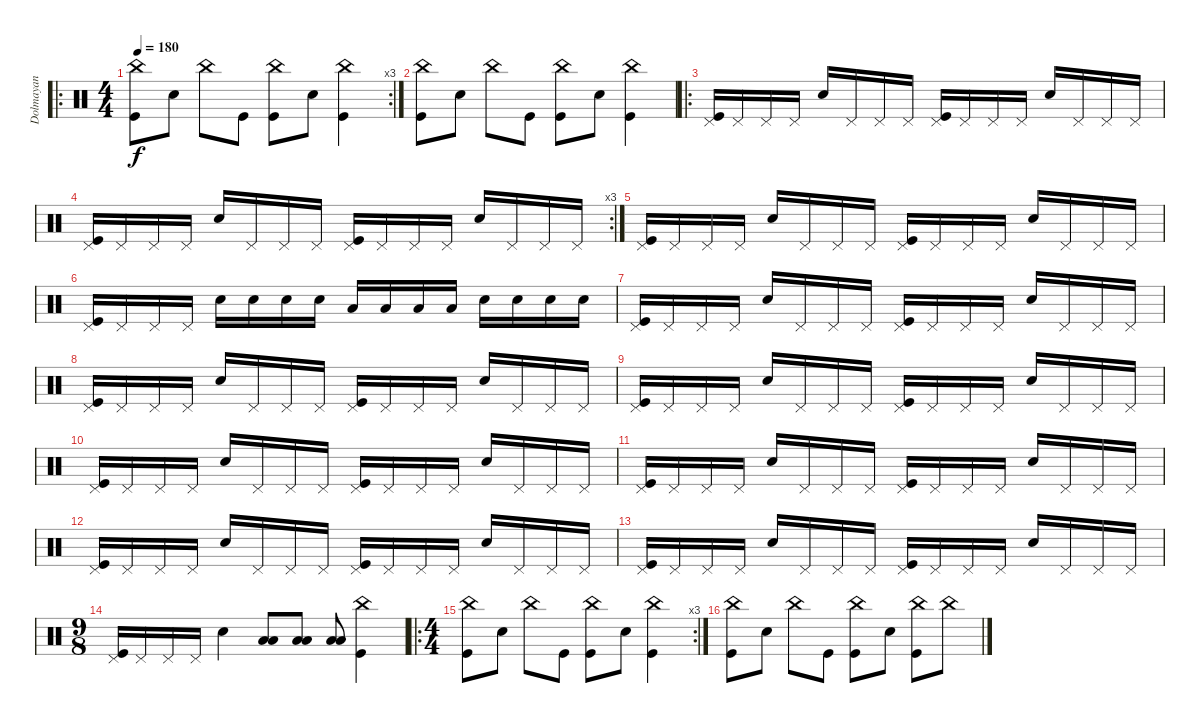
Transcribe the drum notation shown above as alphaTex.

\track ("Dolmayan" "Dolmayan") {instrument percussion}
\staff {score}
\articulation defaults
\ro
\rc 3
\ts (4 4)
\tempo 180
\clef neutral
\ks c
("China (hit)" "Kick (hit)").8{dy f} "Snare (hit) 2".8 "China (hit)".8 "Kick (hit)".8 ("China (hit)" "Kick (hit)").8 "Snare (hit) 2".8 ("China (hit)" "Kick (hit)").4 |
("China (hit)" "Kick (hit)").8 "Snare (hit) 2".8 "China (hit)".8 "Kick (hit)".8 ("China (hit)" "Kick (hit)").8 "Snare (hit) 2".8 ("China (hit)" "Kick (hit)").4 |
\ro
("Pedal Hi-Hat (hit)" "Kick (hit)").16 "Pedal Hi-Hat (hit)".16 "Pedal Hi-Hat (hit)".16 "Pedal Hi-Hat (hit)".16 "Snare (hit) 2".16 "Pedal Hi-Hat (hit)".16 "Pedal Hi-Hat (hit)".16 "Pedal Hi-Hat (hit)".16 ("Pedal Hi-Hat (hit)" "Kick (hit)").16 "Pedal Hi-Hat (hit)".16 "Pedal Hi-Hat (hit)".16 "Pedal Hi-Hat (hit)".16 "Snare (hit) 2".16 "Pedal Hi-Hat (hit)".16 "Pedal Hi-Hat (hit)".16 "Pedal Hi-Hat (hit)".16 |
\rc 3
("Pedal Hi-Hat (hit)" "Kick (hit)").16 "Pedal Hi-Hat (hit)".16 "Pedal Hi-Hat (hit)".16 "Pedal Hi-Hat (hit)".16 "Snare (hit) 2".16 "Pedal Hi-Hat (hit)".16 "Pedal Hi-Hat (hit)".16 "Pedal Hi-Hat (hit)".16 ("Pedal Hi-Hat (hit)" "Kick (hit)").16 "Pedal Hi-Hat (hit)".16 "Pedal Hi-Hat (hit)".16 "Pedal Hi-Hat (hit)".16 "Snare (hit) 2".16 "Pedal Hi-Hat (hit)".16 "Pedal Hi-Hat (hit)".16 "Pedal Hi-Hat (hit)".16 |
("Pedal Hi-Hat (hit)" "Kick (hit)").16 "Pedal Hi-Hat (hit)".16 "Pedal Hi-Hat (hit)".16 "Pedal Hi-Hat (hit)".16 "Snare (hit) 2".16 "Pedal Hi-Hat (hit)".16 "Pedal Hi-Hat (hit)".16 "Pedal Hi-Hat (hit)".16 ("Pedal Hi-Hat (hit)" "Kick (hit)").16 "Pedal Hi-Hat (hit)".16 "Pedal Hi-Hat (hit)".16 "Pedal Hi-Hat (hit)".16 "Snare (hit) 2".16 "Pedal Hi-Hat (hit)".16 "Pedal Hi-Hat (hit)".16 "Pedal Hi-Hat (hit)".16 |
("Pedal Hi-Hat (hit)" "Kick (hit)").16 "Pedal Hi-Hat (hit)".16 "Pedal Hi-Hat (hit)".16 "Pedal Hi-Hat (hit)".16 "Snare (hit) 2".16 "Snare (hit) 2".16 "Snare (hit) 2".16 "Snare (hit) 2".16 "Low Tom (hit)".16 "Low Tom (hit)".16 "Low Tom (hit)".16 "Low Tom (hit)".16 "Snare (hit) 2".16 "Snare (hit) 2".16 "Snare (hit) 2".16 "Snare (hit) 2".16 |
("Pedal Hi-Hat (hit)" "Kick (hit)").16 "Pedal Hi-Hat (hit)".16 "Pedal Hi-Hat (hit)".16 "Pedal Hi-Hat (hit)".16 "Snare (hit) 2".16 "Pedal Hi-Hat (hit)".16 "Pedal Hi-Hat (hit)".16 "Pedal Hi-Hat (hit)".16 ("Pedal Hi-Hat (hit)" "Kick (hit)").16 "Pedal Hi-Hat (hit)".16 "Pedal Hi-Hat (hit)".16 "Pedal Hi-Hat (hit)".16 "Snare (hit) 2".16 "Pedal Hi-Hat (hit)".16 "Pedal Hi-Hat (hit)".16 "Pedal Hi-Hat (hit)".16 |
("Pedal Hi-Hat (hit)" "Kick (hit)").16 "Pedal Hi-Hat (hit)".16 "Pedal Hi-Hat (hit)".16 "Pedal Hi-Hat (hit)".16 "Snare (hit) 2".16 "Pedal Hi-Hat (hit)".16 "Pedal Hi-Hat (hit)".16 "Pedal Hi-Hat (hit)".16 ("Pedal Hi-Hat (hit)" "Kick (hit)").16 "Pedal Hi-Hat (hit)".16 "Pedal Hi-Hat (hit)".16 "Pedal Hi-Hat (hit)".16 "Snare (hit) 2".16 "Pedal Hi-Hat (hit)".16 "Pedal Hi-Hat (hit)".16 "Pedal Hi-Hat (hit)".16 |
("Pedal Hi-Hat (hit)" "Kick (hit)").16 "Pedal Hi-Hat (hit)".16 "Pedal Hi-Hat (hit)".16 "Pedal Hi-Hat (hit)".16 "Snare (hit) 2".16 "Pedal Hi-Hat (hit)".16 "Pedal Hi-Hat (hit)".16 "Pedal Hi-Hat (hit)".16 ("Pedal Hi-Hat (hit)" "Kick (hit)").16 "Pedal Hi-Hat (hit)".16 "Pedal Hi-Hat (hit)".16 "Pedal Hi-Hat (hit)".16 "Snare (hit) 2".16 "Pedal Hi-Hat (hit)".16 "Pedal Hi-Hat (hit)".16 "Pedal Hi-Hat (hit)".16 |
("Pedal Hi-Hat (hit)" "Kick (hit)").16 "Pedal Hi-Hat (hit)".16 "Pedal Hi-Hat (hit)".16 "Pedal Hi-Hat (hit)".16 "Snare (hit) 2".16 "Pedal Hi-Hat (hit)".16 "Pedal Hi-Hat (hit)".16 "Pedal Hi-Hat (hit)".16 ("Pedal Hi-Hat (hit)" "Kick (hit)").16 "Pedal Hi-Hat (hit)".16 "Pedal Hi-Hat (hit)".16 "Pedal Hi-Hat (hit)".16 "Snare (hit) 2".16 "Pedal Hi-Hat (hit)".16 "Pedal Hi-Hat (hit)".16 "Pedal Hi-Hat (hit)".16 |
("Pedal Hi-Hat (hit)" "Kick (hit)").16 "Pedal Hi-Hat (hit)".16 "Pedal Hi-Hat (hit)".16 "Pedal Hi-Hat (hit)".16 "Snare (hit) 2".16 "Pedal Hi-Hat (hit)".16 "Pedal Hi-Hat (hit)".16 "Pedal Hi-Hat (hit)".16 ("Pedal Hi-Hat (hit)" "Kick (hit)").16 "Pedal Hi-Hat (hit)".16 "Pedal Hi-Hat (hit)".16 "Pedal Hi-Hat (hit)".16 "Snare (hit) 2".16 "Pedal Hi-Hat (hit)".16 "Pedal Hi-Hat (hit)".16 "Pedal Hi-Hat (hit)".16 |
("Pedal Hi-Hat (hit)" "Kick (hit)").16 "Pedal Hi-Hat (hit)".16 "Pedal Hi-Hat (hit)".16 "Pedal Hi-Hat (hit)".16 "Snare (hit) 2".16 "Pedal Hi-Hat (hit)".16 "Pedal Hi-Hat (hit)".16 "Pedal Hi-Hat (hit)".16 ("Pedal Hi-Hat (hit)" "Kick (hit)").16 "Pedal Hi-Hat (hit)".16 "Pedal Hi-Hat (hit)".16 "Pedal Hi-Hat (hit)".16 "Snare (hit) 2".16 "Pedal Hi-Hat (hit)".16 "Pedal Hi-Hat (hit)".16 "Pedal Hi-Hat (hit)".16 |
("Pedal Hi-Hat (hit)" "Kick (hit)").16 "Pedal Hi-Hat (hit)".16 "Pedal Hi-Hat (hit)".16 "Pedal Hi-Hat (hit)".16 "Snare (hit) 2".16 "Pedal Hi-Hat (hit)".16 "Pedal Hi-Hat (hit)".16 "Pedal Hi-Hat (hit)".16 ("Pedal Hi-Hat (hit)" "Kick (hit)").16 "Pedal Hi-Hat (hit)".16 "Pedal Hi-Hat (hit)".16 "Pedal Hi-Hat (hit)".16 "Snare (hit) 2".16 "Pedal Hi-Hat (hit)".16 "Pedal Hi-Hat (hit)".16 "Pedal Hi-Hat (hit)".16 |
\ts (9 8)
("Pedal Hi-Hat (hit)" "Kick (hit)").16 "Pedal Hi-Hat (hit)".16 "Pedal Hi-Hat (hit)".16 "Pedal Hi-Hat (hit)".16 "Snare (hit) 2".4 ("Low Tom (hit)" "Low Floor Tom (hit)").8 ("Low Tom (hit)" "Low Floor Tom (hit)").8 ("Low Tom (hit)" "Low Floor Tom (hit)").8 ("China (hit)" "Kick (hit)").4 |
\ro
\rc 3
\ts (4 4)
("China (hit)" "Kick (hit)").8 "Snare (hit) 2".8 "China (hit)".8 "Kick (hit)".8 ("China (hit)" "Kick (hit)").8 "Snare (hit) 2".8 ("China (hit)" "Kick (hit)").4 |
("China (hit)" "Kick (hit)").8 "Snare (hit) 2".8 "China (hit)".8 "Kick (hit)".8 ("China (hit)" "Kick (hit)").8 "Snare (hit) 2".8 ("China (hit)" "Kick (hit)").8 "China (hit)".8
